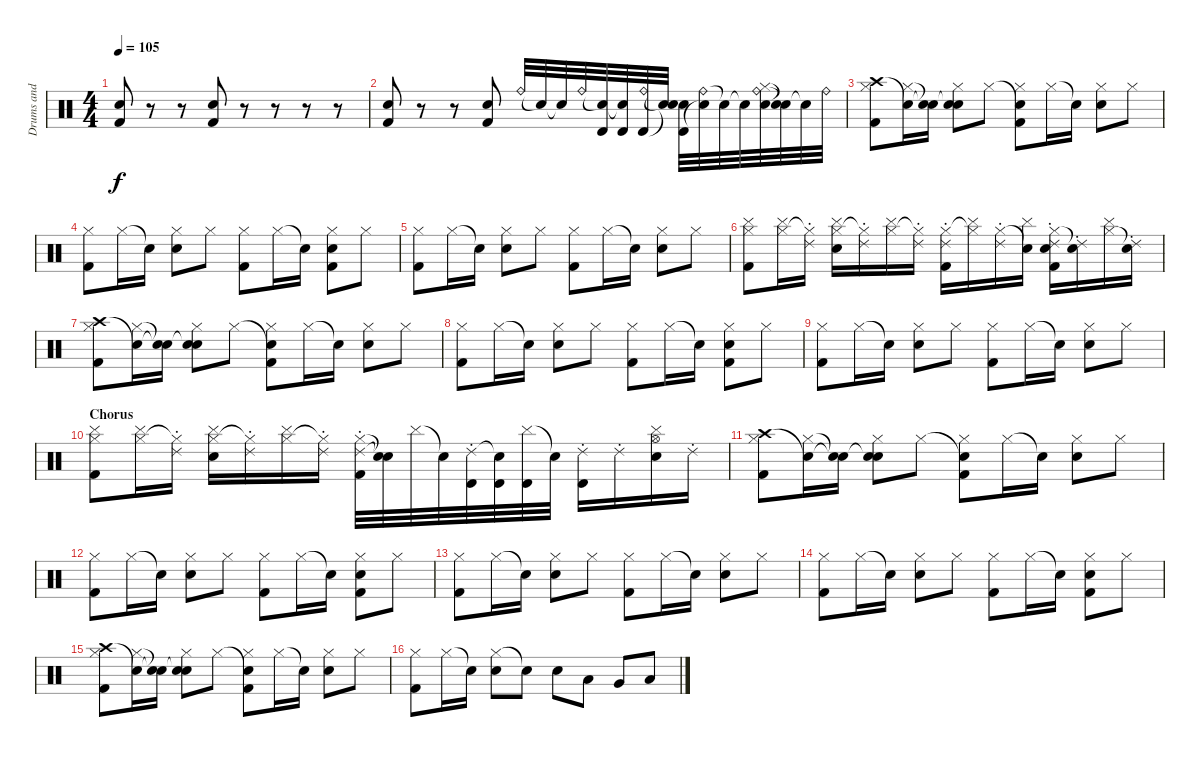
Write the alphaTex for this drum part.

\track ("Drums and scratch" "Drums and ") {instrument percussion}
\staff {score}
\articulation defaults
\ts (4 4)
\tempo 105
\clef neutral
\ks c
("Electric Snare (hit)" "Kick (hit) 2").8{dy f} r.8 r.8 ("Electric Snare (hit)" "Kick (hit) 2").8 r.8 r.8 r.8 r.8 |
("Electric Snare (hit)" "Kick (hit) 2").8 r.8 r.8 ("Electric Snare (hit)" "Kick (hit) 2").8 "Ride (bell)".32 "Snare (hit)"{t}.32 "Snare (hit)"{t}.32 "Ride (bell)".32 ("Snare (hit)"{t} "Timbale high (hit)").32 ("Snare (hit)"{t} "Timbale high (hit)").32 ("Ride (bell)" "Timbale high (hit)").32 ("Snare (hit)"{t} "Snare (hit)"{t}).32 ("Snare (hit)"{t} "Timbale high (hit)").32 ("Ride (bell)" "Snare (hit)"{t}).32 "Snare (hit)"{t}.32 "Snare (hit)"{t}.32 ("Ride (bell)" "Hi-Hat (closed)" "Electric Snare (hit)").32 ("Snare (hit)"{t} "Snare (hit)"{t}).32 "Snare (hit)"{t}.32 "Ride (bell)".32 |
("Crash high (hit)" "Hi-Hat (closed)" "Kick (hit) 2").8 ("Snare (hit)"{t} "Hi-Hat (closed)").16 ("Snare (hit)"{t} "Snare (hit)"{t}).16 ("Snare (hit)"{t} "Hi-Hat (closed)" "Electric Snare (hit)").8 "Hi-Hat (closed)".8 ("Snare (hit)"{t} "Hi-Hat (closed)" "Kick (hit) 2").8 "Hi-Hat (closed)".16 "Snare (hit)"{t}.16 ("Hi-Hat (closed)" "Electric Snare (hit)").8 "Hi-Hat (closed)".8 |
("Hi-Hat (closed)" "Kick (hit) 2").8 "Hi-Hat (closed)".16 "Snare (hit)"{t}.16 ("Hi-Hat (closed)" "Electric Snare (hit)").8 "Hi-Hat (closed)".8 ("Hi-Hat (closed)" "Kick (hit) 2").8 "Hi-Hat (closed)".16 "Snare (hit)"{t}.16 ("Hi-Hat (closed)" "Electric Snare (hit)" "Kick (hit) 2").8 "Hi-Hat (closed)".8 |
("Hi-Hat (closed)" "Kick (hit) 2").8 "Hi-Hat (closed)".16 "Snare (hit)"{t}.16 ("Hi-Hat (closed)" "Electric Snare (hit)").8 "Hi-Hat (closed)".8 ("Hi-Hat (closed)" "Kick (hit) 2").8 "Hi-Hat (closed)".16 "Snare (hit)"{t}.16 ("Hi-Hat (closed)" "Electric Snare (hit)").8 "Hi-Hat (closed)".8 |
("Cymbal (hit)" "Hi-Hat (closed)" "Kick (hit) 2").8 ("Cymbal (hit)" "Hi-Hat (closed)").16 ("Ride (choke) 2" "Hi-Hat (closed)"{t}).16 ("Cymbal (hit)" "Hi-Hat (closed)" "Electric Snare (hit)").16 ("Ride (choke) 2" "Hi-Hat (closed)"{t}).16 ("Cymbal (hit)" "Hi-Hat (closed)").16 ("Ride (choke) 2" "Hi-Hat (closed)"{t}).16 ("Ride (choke) 2" "Hi-Hat (closed)" "Kick (hit) 2").16 ("Cymbal (hit)" "Hi-Hat (closed)"{t}).16 ("Ride (choke) 2" "Hi-Hat (closed)").16 ("Cymbal (hit)" "Snare (hit)"{t}).16 ("Ride (choke) 2" "Hi-Hat (closed)" "Electric Snare (hit)" "Kick (hit) 2").16 ("Ride (choke) 2" "Snare (hit)"{t}).16 ("Cymbal (hit)" "Hi-Hat (closed)").16 ("Ride (choke) 2" "Snare (hit)"{t}).16 |
("Crash high (hit)" "Hi-Hat (closed)" "Kick (hit) 2").8 ("Snare (hit)"{t} "Hi-Hat (closed)").16 ("Snare (hit)"{t} "Snare (hit)"{t}).16 ("Snare (hit)"{t} "Hi-Hat (closed)" "Electric Snare (hit)").8 "Hi-Hat (closed)".8 ("Snare (hit)"{t} "Hi-Hat (closed)" "Kick (hit) 2").8 "Hi-Hat (closed)".16 "Snare (hit)"{t}.16 ("Hi-Hat (closed)" "Electric Snare (hit)").8 "Hi-Hat (closed)".8 |
("Hi-Hat (closed)" "Kick (hit) 2").8 "Hi-Hat (closed)".16 "Snare (hit)"{t}.16 ("Hi-Hat (closed)" "Electric Snare (hit)").8 "Hi-Hat (closed)".8 ("Hi-Hat (closed)" "Kick (hit) 2").8 "Hi-Hat (closed)".16 "Snare (hit)"{t}.16 ("Hi-Hat (closed)" "Electric Snare (hit)" "Kick (hit) 2").8 "Hi-Hat (closed)".8 |
("Hi-Hat (closed)" "Kick (hit) 2").8 "Hi-Hat (closed)".16 "Snare (hit)"{t}.16 ("Hi-Hat (closed)" "Electric Snare (hit)").8 "Hi-Hat (closed)".8 ("Hi-Hat (closed)" "Kick (hit) 2").8 "Hi-Hat (closed)".16 "Snare (hit)"{t}.16 ("Hi-Hat (closed)" "Electric Snare (hit)").8 "Hi-Hat (closed)".8 |
\section ("" "Chorus")
("Cymbal (hit)" "Hi-Hat (closed)" "Kick (hit) 2").8 ("Cymbal (hit)" "Hi-Hat (closed)").16 ("Ride (choke) 2" "Hi-Hat (closed)"{t}).16 ("Cymbal (hit)" "Hi-Hat (closed)" "Electric Snare (hit)").16 ("Ride (choke) 2" "Hi-Hat (closed)"{t}).16 ("Cymbal (hit)" "Hi-Hat (closed)").16 ("Ride (choke) 2" "Hi-Hat (closed)"{t}).16 ("Ride (choke) 2" "Hi-Hat (closed)" "Kick (hit) 2").32 ("Snare (hit)"{t} "Snare (hit)"{t}).32 "Cymbal (hit)".32 "Snare (hit)"{t}.32 ("Ride (choke) 2" "Timbale high (hit)").32 ("Snare (hit)"{t} "Timbale high (hit)").32 ("Cymbal (hit)" "Timbale high (hit)").32 "Snare (hit)"{t}.32 ("Ride (choke) 2" "Timbale high (hit)").16 "Ride (choke) 2".16 ("Cymbal (hit)" "Hi-Hat (open)" "Electric Snare (hit)").16 "Ride (choke) 2".16 |
("Crash high (hit)" "Hi-Hat (closed)" "Kick (hit) 2").8 ("Snare (hit)"{t} "Hi-Hat (closed)").16 ("Snare (hit)"{t} "Snare (hit)"{t}).16 ("Snare (hit)"{t} "Hi-Hat (closed)" "Electric Snare (hit)").8 "Hi-Hat (closed)".8 ("Snare (hit)"{t} "Hi-Hat (closed)" "Kick (hit) 2").8 "Hi-Hat (closed)".16 "Snare (hit)"{t}.16 ("Hi-Hat (closed)" "Electric Snare (hit)").8 "Hi-Hat (closed)".8 |
("Hi-Hat (closed)" "Kick (hit) 2").8 "Hi-Hat (closed)".16 "Snare (hit)"{t}.16 ("Hi-Hat (closed)" "Electric Snare (hit)").8 "Hi-Hat (closed)".8 ("Hi-Hat (closed)" "Kick (hit) 2").8 "Hi-Hat (closed)".16 "Snare (hit)"{t}.16 ("Hi-Hat (closed)" "Electric Snare (hit)" "Kick (hit) 2").8 "Hi-Hat (closed)".8 |
("Hi-Hat (closed)" "Kick (hit) 2").8 "Hi-Hat (closed)".16 "Snare (hit)"{t}.16 ("Hi-Hat (closed)" "Electric Snare (hit)").8 "Hi-Hat (closed)".8 ("Hi-Hat (closed)" "Kick (hit) 2").8 "Hi-Hat (closed)".16 "Snare (hit)"{t}.16 ("Hi-Hat (closed)" "Electric Snare (hit)").8 "Hi-Hat (closed)".8 |
("Hi-Hat (closed)" "Kick (hit) 2").8 "Hi-Hat (closed)".16 "Snare (hit)"{t}.16 ("Hi-Hat (closed)" "Electric Snare (hit)").8 "Hi-Hat (closed)".8 ("Hi-Hat (closed)" "Kick (hit) 2").8 "Hi-Hat (closed)".16 "Snare (hit)"{t}.16 ("Hi-Hat (closed)" "Electric Snare (hit)" "Kick (hit) 2").8 "Hi-Hat (closed)".8 |
("Crash high (hit)" "Hi-Hat (closed)" "Kick (hit) 2").8 ("Snare (hit)"{t} "Hi-Hat (closed)").16 ("Snare (hit)"{t} "Snare (hit)"{t}).16 ("Snare (hit)"{t} "Hi-Hat (closed)" "Electric Snare (hit)").8 "Hi-Hat (closed)".8 ("Snare (hit)"{t} "Hi-Hat (closed)" "Kick (hit) 2").8 "Hi-Hat (closed)".16 "Snare (hit)"{t}.16 ("Hi-Hat (closed)" "Electric Snare (hit)").8 "Hi-Hat (closed)".8 |
("Hi-Hat (closed)" "Kick (hit) 2").8 "Hi-Hat (closed)".16 "Snare (hit)"{t}.16 ("Hi-Hat (closed)" "Electric Snare (hit)").8 "Snare (hit)"{t}.8 "Electric Snare (hit)".8 "Low Tom (hit)".8 "Very Low Tom (hit)".8 "Low Floor Tom (hit)".8
